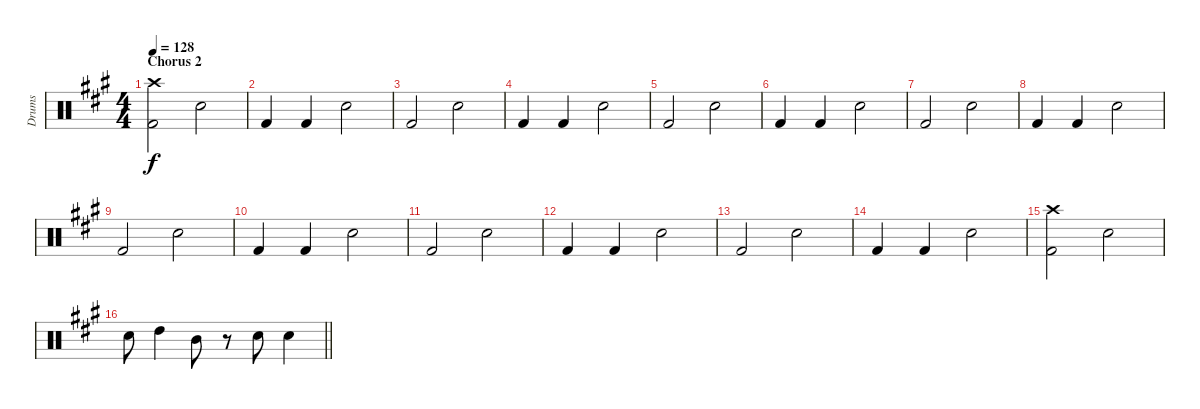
\track ("Drums" "Drums") {instrument percussion}
\staff {score}
\articulation defaults
\ts (4 4)
\section ("" "Chorus 2")
\tempo 128
\clef neutral
\ks f#minor
("Crash high (hit)" "Kick (hit) 2").2{dy f} "Electric Snare (hit)".2 |
"Kick (hit) 2".4 "Kick (hit) 2".4 "Electric Snare (hit)".2 |
"Kick (hit) 2".2 "Electric Snare (hit)".2 |
"Kick (hit) 2".4 "Kick (hit) 2".4 "Electric Snare (hit)".2 |
"Kick (hit) 2".2 "Electric Snare (hit)".2 |
"Kick (hit) 2".4 "Kick (hit) 2".4 "Electric Snare (hit)".2 |
"Kick (hit) 2".2 "Electric Snare (hit)".2 |
"Kick (hit) 2".4 "Kick (hit) 2".4 "Electric Snare (hit)".2 |
"Kick (hit) 2".2 "Electric Snare (hit)".2 |
"Kick (hit) 2".4 "Kick (hit) 2".4 "Electric Snare (hit)".2 |
"Kick (hit) 2".2 "Electric Snare (hit)".2 |
"Kick (hit) 2".4 "Kick (hit) 2".4 "Electric Snare (hit)".2 |
"Kick (hit) 2".2 "Electric Snare (hit)".2 |
"Kick (hit) 2".4 "Kick (hit) 2".4 "Electric Snare (hit)".2 |
("Crash high (hit)" "Kick (hit) 2").2 "Electric Snare (hit)".2 |
\barLineRight lightlight "Electric Snare (hit)".8 "High Tom (hit)".4 "Mid Tom (hit)".8
r.8 "Electric Snare (hit)".8 "Electric Snare (hit)".4
